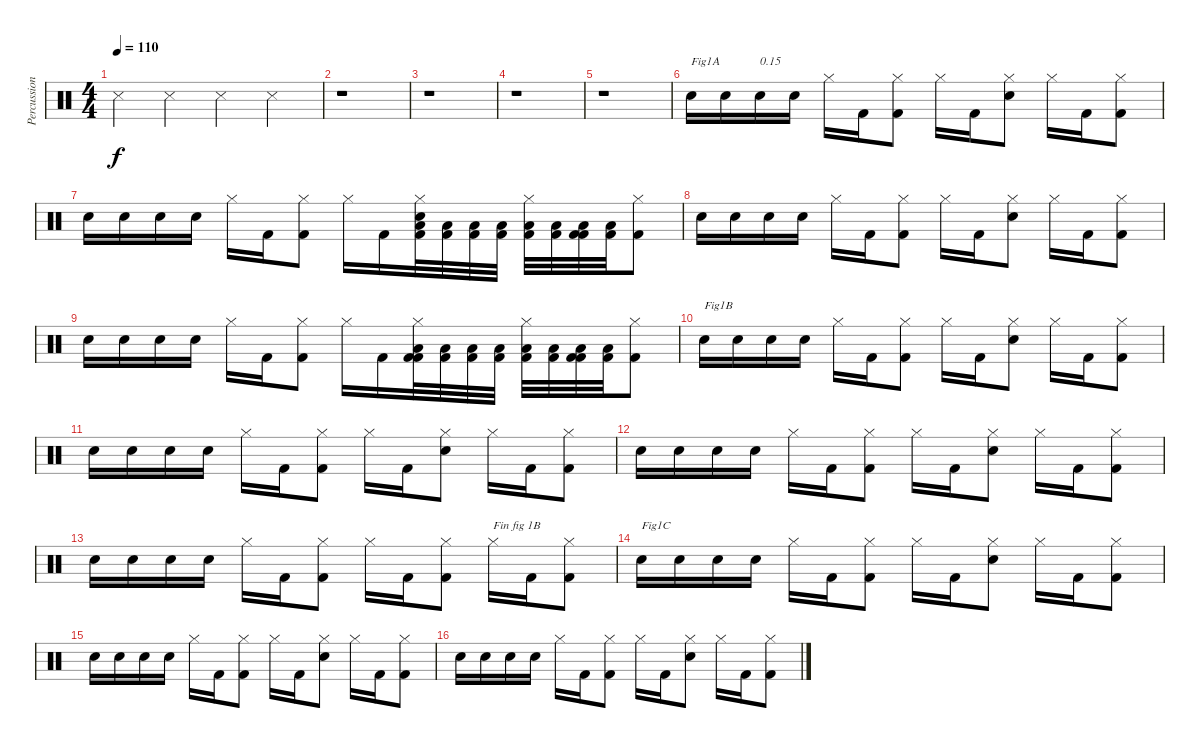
\track ("Percussions" "Percussion") {instrument percussion}
\staff {score}
\articulation defaults
\ts (4 4)
\tempo 110
\clef neutral
\ks c "Metronome (hit)".4{dy f} "Metronome (hit)".4 "Metronome (hit)".4 "Metronome (hit)".4
|
r.1 |
r.1 |
r.1 |
r.1 |
"Electric Snare (hit)".16{txt "Fig1A"} "Electric Snare (hit)".16 "Electric Snare (hit)".16{txt "0.15"} "Electric Snare (hit)".16 "Hi-Hat (closed)".16 "Kick (hit) 2".16 ("Kick (hit) 2" "Hi-Hat (closed)").8 "Hi-Hat (closed)".16 "Kick (hit) 2".16 ("Electric Snare (hit)" "Hi-Hat (closed)").8 "Hi-Hat (closed)".16 "Kick (hit) 2".16 ("Kick (hit) 2" "Hi-Hat (closed)").8 |
"Electric Snare (hit)".16 "Electric Snare (hit)".16 "Electric Snare (hit)".16 "Electric Snare (hit)".16 "Hi-Hat (closed)".16 "Kick (hit) 2".16 ("Kick (hit) 2" "Hi-Hat (closed)").8 "Hi-Hat (closed)".16 "Kick (hit) 2".16 ("Kick (hit) 2" "Electric Snare (hit)" "Hi-Hat (closed)" "Low Floor Tom (hit)").32 ("Kick (hit) 2" "Low Floor Tom (hit)").32 ("Kick (hit) 2" "Low Floor Tom (hit)").32 ("Kick (hit) 2" "Low Floor Tom (hit)").32 ("Kick (hit) 2" "Hi-Hat (closed)" "Low Floor Tom (hit)").32 ("Kick (hit) 2" "Low Floor Tom (hit)").32 ("Kick (hit) 2" "Kick (hit) 2" "Low Floor Tom (hit)").32 ("Kick (hit) 2" "Low Floor Tom (hit)").32 ("Kick (hit) 2" "Hi-Hat (closed)").8 |
"Electric Snare (hit)".16 "Electric Snare (hit)".16 "Electric Snare (hit)".16 "Electric Snare (hit)".16 "Hi-Hat (closed)".16 "Kick (hit) 2".16 ("Kick (hit) 2" "Hi-Hat (closed)").8 "Hi-Hat (closed)".16 "Kick (hit) 2".16 ("Electric Snare (hit)" "Hi-Hat (closed)").8 "Hi-Hat (closed)".16 "Kick (hit) 2".16 ("Kick (hit) 2" "Hi-Hat (closed)").8 |
"Electric Snare (hit)".16 "Electric Snare (hit)".16 "Electric Snare (hit)".16 "Electric Snare (hit)".16 "Hi-Hat (closed)".16 "Kick (hit) 2".16 ("Kick (hit) 2" "Hi-Hat (closed)").8 "Hi-Hat (closed)".16 "Kick (hit) 2".16 ("Kick (hit) 2" "Kick (hit) 2" "Hi-Hat (closed)" "Low Floor Tom (hit)").32 ("Kick (hit) 2" "Low Floor Tom (hit)").32 ("Kick (hit) 2" "Low Floor Tom (hit)").32 ("Kick (hit) 2" "Low Floor Tom (hit)").32 ("Kick (hit) 2" "Hi-Hat (closed)" "Low Floor Tom (hit)").32 ("Kick (hit) 2" "Low Floor Tom (hit)").32 ("Kick (hit) 2" "Kick (hit) 2" "Low Floor Tom (hit)").32 ("Kick (hit) 2" "Low Floor Tom (hit)").32 ("Kick (hit) 2" "Hi-Hat (closed)").8 |
"Electric Snare (hit)".16{txt "Fig1B"} "Electric Snare (hit)".16 "Electric Snare (hit)".16 "Electric Snare (hit)".16 "Hi-Hat (closed)".16 "Kick (hit) 2".16 ("Kick (hit) 2" "Hi-Hat (closed)").8 "Hi-Hat (closed)".16 "Kick (hit) 2".16 ("Electric Snare (hit)" "Hi-Hat (closed)").8 "Hi-Hat (closed)".16 "Kick (hit) 2".16 ("Kick (hit) 2" "Hi-Hat (closed)").8 |
"Electric Snare (hit)".16 "Electric Snare (hit)".16 "Electric Snare (hit)".16 "Electric Snare (hit)".16 "Hi-Hat (closed)".16 "Kick (hit) 2".16 ("Kick (hit) 2" "Hi-Hat (closed)").8 "Hi-Hat (closed)".16 "Kick (hit) 2".16 ("Electric Snare (hit)" "Hi-Hat (closed)").8 "Hi-Hat (closed)".16 "Kick (hit) 2".16 ("Kick (hit) 2" "Hi-Hat (closed)").8 |
"Electric Snare (hit)".16 "Electric Snare (hit)".16 "Electric Snare (hit)".16 "Electric Snare (hit)".16 "Hi-Hat (closed)".16 "Kick (hit) 2".16 ("Kick (hit) 2" "Hi-Hat (closed)").8 "Hi-Hat (closed)".16 "Kick (hit) 2".16 ("Electric Snare (hit)" "Hi-Hat (closed)").8 "Hi-Hat (closed)".16 "Kick (hit) 2".16 ("Kick (hit) 2" "Hi-Hat (closed)").8 |
"Electric Snare (hit)".16 "Electric Snare (hit)".16 "Electric Snare (hit)".16 "Electric Snare (hit)".16 "Hi-Hat (closed)".16 "Kick (hit) 2".16 ("Kick (hit) 2" "Hi-Hat (closed)").8 "Hi-Hat (closed)".16 "Kick (hit) 2".16 ("Kick (hit) 2" "Hi-Hat (closed)").8 "Hi-Hat (closed)".16{txt "Fin fig 1B"} "Kick (hit) 2".16 ("Kick (hit) 2" "Hi-Hat (closed)").8 |
"Electric Snare (hit)".16{txt "Fig1C"} "Electric Snare (hit)".16 "Electric Snare (hit)".16 "Electric Snare (hit)".16 "Hi-Hat (closed)".16 "Kick (hit) 2".16 ("Kick (hit) 2" "Hi-Hat (closed)").8 "Hi-Hat (closed)".16 "Kick (hit) 2".16 ("Electric Snare (hit)" "Hi-Hat (closed)").8 "Hi-Hat (closed)".16 "Kick (hit) 2".16 ("Kick (hit) 2" "Hi-Hat (closed)").8 |
"Electric Snare (hit)".16 "Electric Snare (hit)".16 "Electric Snare (hit)".16 "Electric Snare (hit)".16 "Hi-Hat (closed)".16 "Kick (hit) 2".16 ("Kick (hit) 2" "Hi-Hat (closed)").8 "Hi-Hat (closed)".16 "Kick (hit) 2".16 ("Electric Snare (hit)" "Hi-Hat (closed)").8 "Hi-Hat (closed)".16 "Kick (hit) 2".16 ("Kick (hit) 2" "Hi-Hat (closed)").8 |
"Electric Snare (hit)".16 "Electric Snare (hit)".16 "Electric Snare (hit)".16 "Electric Snare (hit)".16 "Hi-Hat (closed)".16 "Kick (hit) 2".16 ("Kick (hit) 2" "Hi-Hat (closed)").8 "Hi-Hat (closed)".16 "Kick (hit) 2".16 ("Electric Snare (hit)" "Hi-Hat (closed)").8 "Hi-Hat (closed)".16 "Kick (hit) 2".16 ("Kick (hit) 2" "Hi-Hat (closed)").8
